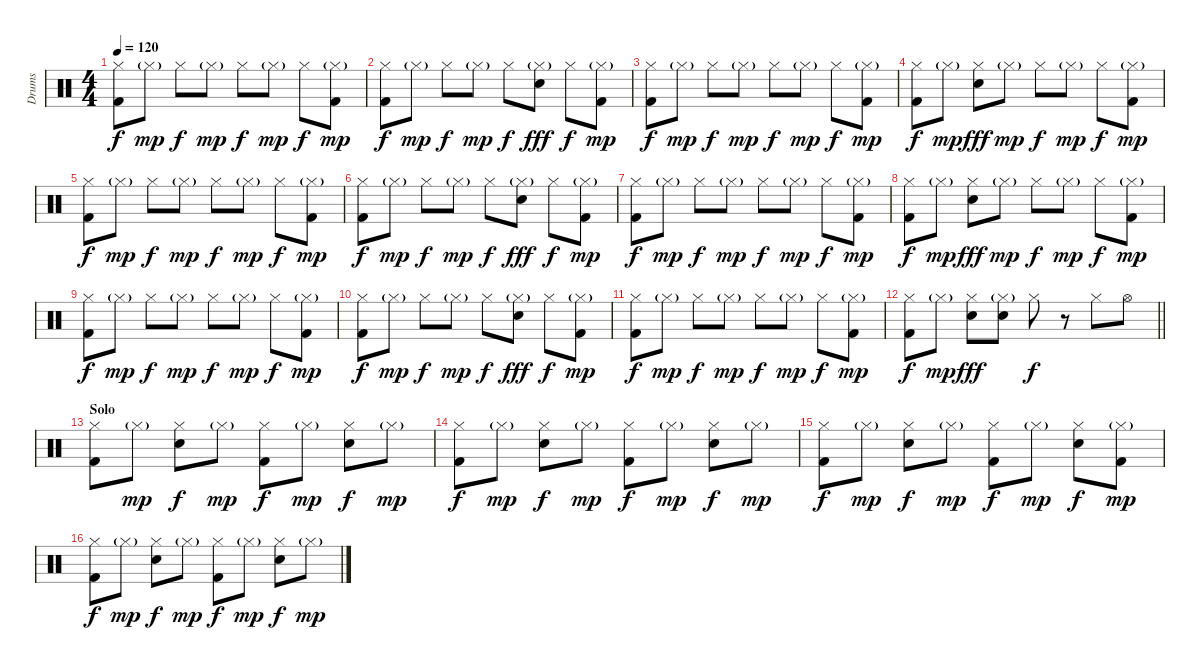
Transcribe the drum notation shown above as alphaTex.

\track ("Drums" "Drums") {instrument percussion}
\staff {score}
\articulation defaults
\ts (4 4)
\tempo 120
\clef neutral
\ks c
("Hi-Hat (closed)" "Kick (hit) 2").8{dy f} "Hi-Hat (closed)"{g}.8{dy mp} "Hi-Hat (closed)".8{dy f} "Hi-Hat (closed)"{g}.8{dy mp} "Hi-Hat (closed)".8{dy f} "Hi-Hat (closed)"{g}.8{dy mp} "Hi-Hat (closed)".8{dy f} ("Hi-Hat (closed)"{g} "Kick (hit) 2").8{dy mp} |
("Hi-Hat (closed)" "Kick (hit) 2").8{dy f} "Hi-Hat (closed)"{g}.8{dy mp} "Hi-Hat (closed)".8{dy f} "Hi-Hat (closed)"{g}.8{dy mp} "Hi-Hat (closed)".8{dy f} ("Hi-Hat (closed)"{g} "Electric Snare (hit)").8{dy fff} "Hi-Hat (closed)".8{dy f} ("Hi-Hat (closed)"{g} "Kick (hit) 2").8{dy mp} |
("Hi-Hat (closed)" "Kick (hit) 2").8{dy f} "Hi-Hat (closed)"{g}.8{dy mp} "Hi-Hat (closed)".8{dy f} "Hi-Hat (closed)"{g}.8{dy mp} "Hi-Hat (closed)".8{dy f} "Hi-Hat (closed)"{g}.8{dy mp} "Hi-Hat (closed)".8{dy f} ("Hi-Hat (closed)"{g} "Kick (hit) 2").8{dy mp} |
("Hi-Hat (closed)" "Kick (hit) 2").8{dy f} "Hi-Hat (closed)"{g}.8{dy mp} ("Hi-Hat (closed)" "Electric Snare (hit)").8{dy fff} "Hi-Hat (closed)"{g}.8{dy mp} "Hi-Hat (closed)".8{dy f} "Hi-Hat (closed)"{g}.8{dy mp} "Hi-Hat (closed)".8{dy f} ("Hi-Hat (closed)"{g} "Kick (hit) 2").8{dy mp} |
("Hi-Hat (closed)" "Kick (hit) 2").8{dy f} "Hi-Hat (closed)"{g}.8{dy mp} "Hi-Hat (closed)".8{dy f} "Hi-Hat (closed)"{g}.8{dy mp} "Hi-Hat (closed)".8{dy f} "Hi-Hat (closed)"{g}.8{dy mp} "Hi-Hat (closed)".8{dy f} ("Hi-Hat (closed)"{g} "Kick (hit) 2").8{dy mp} |
("Hi-Hat (closed)" "Kick (hit) 2").8{dy f} "Hi-Hat (closed)"{g}.8{dy mp} "Hi-Hat (closed)".8{dy f} "Hi-Hat (closed)"{g}.8{dy mp} "Hi-Hat (closed)".8{dy f} ("Hi-Hat (closed)"{g} "Electric Snare (hit)").8{dy fff} "Hi-Hat (closed)".8{dy f} ("Hi-Hat (closed)"{g} "Kick (hit) 2").8{dy mp} |
("Hi-Hat (closed)" "Kick (hit) 2").8{dy f} "Hi-Hat (closed)"{g}.8{dy mp} "Hi-Hat (closed)".8{dy f} "Hi-Hat (closed)"{g}.8{dy mp} "Hi-Hat (closed)".8{dy f} "Hi-Hat (closed)"{g}.8{dy mp} "Hi-Hat (closed)".8{dy f} ("Hi-Hat (closed)"{g} "Kick (hit) 2").8{dy mp} |
("Hi-Hat (closed)" "Kick (hit) 2").8{dy f} "Hi-Hat (closed)"{g}.8{dy mp} ("Hi-Hat (closed)" "Electric Snare (hit)").8{dy fff} "Hi-Hat (closed)"{g}.8{dy mp} "Hi-Hat (closed)".8{dy f} "Hi-Hat (closed)"{g}.8{dy mp} "Hi-Hat (closed)".8{dy f} ("Hi-Hat (closed)"{g} "Kick (hit) 2").8{dy mp} |
("Hi-Hat (closed)" "Kick (hit) 2").8{dy f} "Hi-Hat (closed)"{g}.8{dy mp} "Hi-Hat (closed)".8{dy f} "Hi-Hat (closed)"{g}.8{dy mp} "Hi-Hat (closed)".8{dy f} "Hi-Hat (closed)"{g}.8{dy mp} "Hi-Hat (closed)".8{dy f} ("Hi-Hat (closed)"{g} "Kick (hit) 2").8{dy mp} |
("Hi-Hat (closed)" "Kick (hit) 2").8{dy f} "Hi-Hat (closed)"{g}.8{dy mp} "Hi-Hat (closed)".8{dy f} "Hi-Hat (closed)"{g}.8{dy mp} "Hi-Hat (closed)".8{dy f} ("Hi-Hat (closed)"{g} "Electric Snare (hit)").8{dy fff} "Hi-Hat (closed)".8{dy f} ("Hi-Hat (closed)"{g} "Kick (hit) 2").8{dy mp} |
("Hi-Hat (closed)" "Kick (hit) 2").8{dy f} "Hi-Hat (closed)"{g}.8{dy mp} "Hi-Hat (closed)".8{dy f} "Hi-Hat (closed)"{g}.8{dy mp} "Hi-Hat (closed)".8{dy f} "Hi-Hat (closed)"{g}.8{dy mp} "Hi-Hat (closed)".8{dy f} ("Hi-Hat (closed)"{g} "Kick (hit) 2").8{dy mp} |
\barLineRight lightlight
("Hi-Hat (closed)" "Kick (hit) 2").8{dy f} "Hi-Hat (closed)"{g}.8{dy mp} ("Hi-Hat (closed)" "Electric Snare (hit)").8{dy fff} ("Hi-Hat (closed)"{g} "Snare (hit) 2").8 "Hi-Hat (closed)".8{dy f} r.8 "Hi-Hat (closed)".8 "Hi-Hat (open)".8 |
\section ("" "Solo")
("Hi-Hat (closed)" "Kick (hit) 2").8 "Hi-Hat (closed)"{g}.8{dy mp} ("Hi-Hat (closed)" "Electric Snare (hit)").8{dy f} "Hi-Hat (closed)"{g}.8{dy mp} ("Hi-Hat (closed)" "Kick (hit) 2").8{dy f} "Hi-Hat (closed)"{g}.8{dy mp} ("Hi-Hat (closed)" "Electric Snare (hit)").8{dy f} "Hi-Hat (closed)"{g}.8{dy mp} |
("Hi-Hat (closed)" "Kick (hit) 2").8{dy f} "Hi-Hat (closed)"{g}.8{dy mp} ("Hi-Hat (closed)" "Electric Snare (hit)").8{dy f} "Hi-Hat (closed)"{g}.8{dy mp} ("Hi-Hat (closed)" "Kick (hit) 2").8{dy f} "Hi-Hat (closed)"{g}.8{dy mp} ("Hi-Hat (closed)" "Electric Snare (hit)").8{dy f} "Hi-Hat (closed)"{g}.8{dy mp} |
("Hi-Hat (closed)" "Kick (hit) 2").8{dy f} "Hi-Hat (closed)"{g}.8{dy mp} ("Hi-Hat (closed)" "Electric Snare (hit)").8{dy f} "Hi-Hat (closed)"{g}.8{dy mp} ("Hi-Hat (closed)" "Kick (hit) 2").8{dy f} "Hi-Hat (closed)"{g}.8{dy mp} ("Hi-Hat (closed)" "Electric Snare (hit)").8{dy f} ("Hi-Hat (closed)"{g} "Kick (hit) 2").8{dy mp} |
("Hi-Hat (closed)" "Kick (hit) 2").8{dy f} "Hi-Hat (closed)"{g}.8{dy mp} ("Hi-Hat (closed)" "Electric Snare (hit)").8{dy f} "Hi-Hat (closed)"{g}.8{dy mp} ("Hi-Hat (closed)" "Kick (hit) 2").8{dy f} "Hi-Hat (closed)"{g}.8{dy mp} ("Hi-Hat (closed)" "Electric Snare (hit)").8{dy f} "Hi-Hat (closed)"{g}.8{dy mp}
